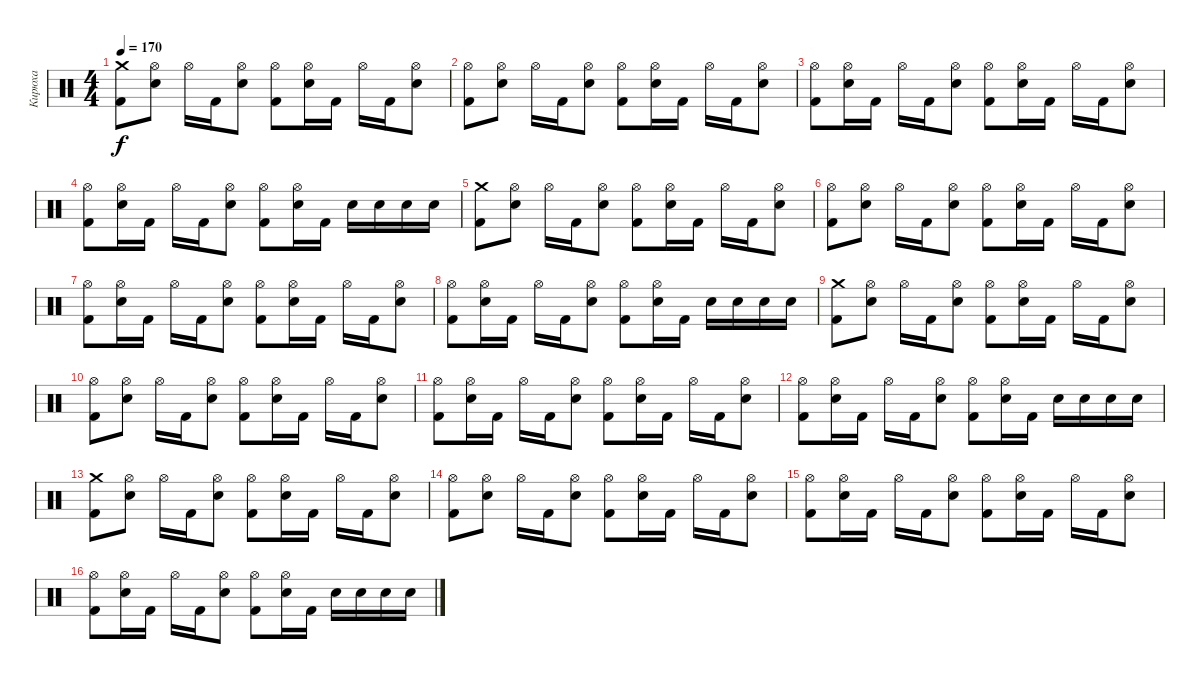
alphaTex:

\track ("Кирюха" "Кирюха") {instrument percussion}
\staff {score}
\articulation defaults
\ts (4 4)
\tempo 170
\clef neutral
\ks c
("Kick (hit) 2" "Crash medium (hit)").8{dy f} ("Electric Snare (hit)" "Hi-Hat (open)").8 "Hi-Hat (open)".16 "Kick (hit) 2".16 ("Electric Snare (hit)" "Hi-Hat (open)").8 ("Kick (hit) 2" "Hi-Hat (open)").8 ("Electric Snare (hit)" "Hi-Hat (open)").16 "Kick (hit) 2".16 "Hi-Hat (open)".16 "Kick (hit) 2".16 ("Electric Snare (hit)" "Hi-Hat (open)").8 |
("Kick (hit) 2" "Hi-Hat (open)").8 ("Electric Snare (hit)" "Hi-Hat (open)").8 "Hi-Hat (open)".16 "Kick (hit) 2".16 ("Electric Snare (hit)" "Hi-Hat (open)").8 ("Kick (hit) 2" "Hi-Hat (open)").8 ("Electric Snare (hit)" "Hi-Hat (open)").16 "Kick (hit) 2".16 "Hi-Hat (open)".16 "Kick (hit) 2".16 ("Electric Snare (hit)" "Hi-Hat (open)").8 |
("Kick (hit) 2" "Hi-Hat (open)").8 ("Electric Snare (hit)" "Hi-Hat (open)").16 "Kick (hit) 2".16 "Hi-Hat (open)".16 "Kick (hit) 2".16 ("Electric Snare (hit)" "Hi-Hat (open)").8 ("Kick (hit) 2" "Hi-Hat (open)").8 ("Electric Snare (hit)" "Hi-Hat (open)").16 "Kick (hit) 2".16 "Hi-Hat (open)".16 "Kick (hit) 2".16 ("Electric Snare (hit)" "Hi-Hat (open)").8 |
("Kick (hit) 2" "Hi-Hat (open)").8 ("Electric Snare (hit)" "Hi-Hat (open)").16 "Kick (hit) 2".16 "Hi-Hat (open)".16 "Kick (hit) 2".16 ("Electric Snare (hit)" "Hi-Hat (open)").8 ("Kick (hit) 2" "Hi-Hat (open)").8 ("Electric Snare (hit)" "Hi-Hat (open)").16 "Kick (hit) 2".16 "Electric Snare (hit)".16 "Electric Snare (hit)".16 "Electric Snare (hit)".16 "Electric Snare (hit)".16 |
("Kick (hit) 2" "Crash medium (hit)").8 ("Electric Snare (hit)" "Hi-Hat (open)").8 "Hi-Hat (open)".16 "Kick (hit) 2".16 ("Electric Snare (hit)" "Hi-Hat (open)").8 ("Kick (hit) 2" "Hi-Hat (open)").8 ("Electric Snare (hit)" "Hi-Hat (open)").16 "Kick (hit) 2".16 "Hi-Hat (open)".16 "Kick (hit) 2".16 ("Electric Snare (hit)" "Hi-Hat (open)").8 |
("Kick (hit) 2" "Hi-Hat (open)").8 ("Electric Snare (hit)" "Hi-Hat (open)").8 "Hi-Hat (open)".16 "Kick (hit) 2".16 ("Electric Snare (hit)" "Hi-Hat (open)").8 ("Kick (hit) 2" "Hi-Hat (open)").8 ("Electric Snare (hit)" "Hi-Hat (open)").16 "Kick (hit) 2".16 "Hi-Hat (open)".16 "Kick (hit) 2".16 ("Electric Snare (hit)" "Hi-Hat (open)").8 |
("Kick (hit) 2" "Hi-Hat (open)").8 ("Electric Snare (hit)" "Hi-Hat (open)").16 "Kick (hit) 2".16 "Hi-Hat (open)".16 "Kick (hit) 2".16 ("Electric Snare (hit)" "Hi-Hat (open)").8 ("Kick (hit) 2" "Hi-Hat (open)").8 ("Electric Snare (hit)" "Hi-Hat (open)").16 "Kick (hit) 2".16 "Hi-Hat (open)".16 "Kick (hit) 2".16 ("Electric Snare (hit)" "Hi-Hat (open)").8 |
("Kick (hit) 2" "Hi-Hat (open)").8 ("Electric Snare (hit)" "Hi-Hat (open)").16 "Kick (hit) 2".16 "Hi-Hat (open)".16 "Kick (hit) 2".16 ("Electric Snare (hit)" "Hi-Hat (open)").8 ("Kick (hit) 2" "Hi-Hat (open)").8 ("Electric Snare (hit)" "Hi-Hat (open)").16 "Kick (hit) 2".16 "Electric Snare (hit)".16 "Electric Snare (hit)".16 "Electric Snare (hit)".16 "Electric Snare (hit)".16 |
("Kick (hit) 2" "Crash medium (hit)").8 ("Electric Snare (hit)" "Hi-Hat (open)").8 "Hi-Hat (open)".16 "Kick (hit) 2".16 ("Electric Snare (hit)" "Hi-Hat (open)").8 ("Kick (hit) 2" "Hi-Hat (open)").8 ("Electric Snare (hit)" "Hi-Hat (open)").16 "Kick (hit) 2".16 "Hi-Hat (open)".16 "Kick (hit) 2".16 ("Electric Snare (hit)" "Hi-Hat (open)").8 |
("Kick (hit) 2" "Hi-Hat (open)").8 ("Electric Snare (hit)" "Hi-Hat (open)").8 "Hi-Hat (open)".16 "Kick (hit) 2".16 ("Electric Snare (hit)" "Hi-Hat (open)").8 ("Kick (hit) 2" "Hi-Hat (open)").8 ("Electric Snare (hit)" "Hi-Hat (open)").16 "Kick (hit) 2".16 "Hi-Hat (open)".16 "Kick (hit) 2".16 ("Electric Snare (hit)" "Hi-Hat (open)").8 |
("Kick (hit) 2" "Hi-Hat (open)").8 ("Electric Snare (hit)" "Hi-Hat (open)").16 "Kick (hit) 2".16 "Hi-Hat (open)".16 "Kick (hit) 2".16 ("Electric Snare (hit)" "Hi-Hat (open)").8 ("Kick (hit) 2" "Hi-Hat (open)").8 ("Electric Snare (hit)" "Hi-Hat (open)").16 "Kick (hit) 2".16 "Hi-Hat (open)".16 "Kick (hit) 2".16 ("Electric Snare (hit)" "Hi-Hat (open)").8 |
("Kick (hit) 2" "Hi-Hat (open)").8 ("Electric Snare (hit)" "Hi-Hat (open)").16 "Kick (hit) 2".16 "Hi-Hat (open)".16 "Kick (hit) 2".16 ("Electric Snare (hit)" "Hi-Hat (open)").8 ("Kick (hit) 2" "Hi-Hat (open)").8 ("Electric Snare (hit)" "Hi-Hat (open)").16 "Kick (hit) 2".16 "Electric Snare (hit)".16 "Electric Snare (hit)".16 "Electric Snare (hit)".16 "Electric Snare (hit)".16 |
("Kick (hit) 2" "Crash medium (hit)").8 ("Electric Snare (hit)" "Hi-Hat (open)").8 "Hi-Hat (open)".16 "Kick (hit) 2".16 ("Electric Snare (hit)" "Hi-Hat (open)").8 ("Kick (hit) 2" "Hi-Hat (open)").8 ("Electric Snare (hit)" "Hi-Hat (open)").16 "Kick (hit) 2".16 "Hi-Hat (open)".16 "Kick (hit) 2".16 ("Electric Snare (hit)" "Hi-Hat (open)").8 |
("Kick (hit) 2" "Hi-Hat (open)").8 ("Electric Snare (hit)" "Hi-Hat (open)").8 "Hi-Hat (open)".16 "Kick (hit) 2".16 ("Electric Snare (hit)" "Hi-Hat (open)").8 ("Kick (hit) 2" "Hi-Hat (open)").8 ("Electric Snare (hit)" "Hi-Hat (open)").16 "Kick (hit) 2".16 "Hi-Hat (open)".16 "Kick (hit) 2".16 ("Electric Snare (hit)" "Hi-Hat (open)").8 |
("Kick (hit) 2" "Hi-Hat (open)").8 ("Electric Snare (hit)" "Hi-Hat (open)").16 "Kick (hit) 2".16 "Hi-Hat (open)".16 "Kick (hit) 2".16 ("Electric Snare (hit)" "Hi-Hat (open)").8 ("Kick (hit) 2" "Hi-Hat (open)").8 ("Electric Snare (hit)" "Hi-Hat (open)").16 "Kick (hit) 2".16 "Hi-Hat (open)".16 "Kick (hit) 2".16 ("Electric Snare (hit)" "Hi-Hat (open)").8 |
("Kick (hit) 2" "Hi-Hat (open)").8 ("Electric Snare (hit)" "Hi-Hat (open)").16 "Kick (hit) 2".16 "Hi-Hat (open)".16 "Kick (hit) 2".16 ("Electric Snare (hit)" "Hi-Hat (open)").8 ("Kick (hit) 2" "Hi-Hat (open)").8 ("Electric Snare (hit)" "Hi-Hat (open)").16 "Kick (hit) 2".16 "Electric Snare (hit)".16 "Electric Snare (hit)".16 "Electric Snare (hit)".16 "Electric Snare (hit)".16
